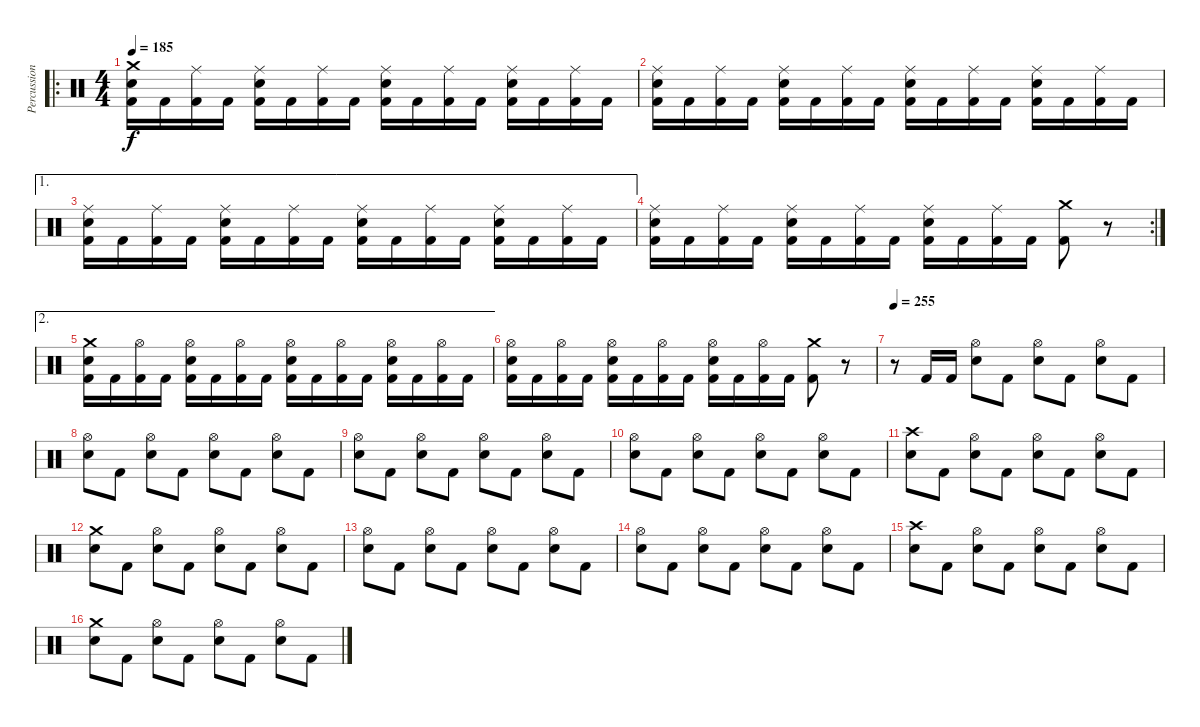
\track ("Percussion" "Percussion") {instrument percussion}
\staff {score}
\articulation defaults
\ro
\ts (4 4)
\tempo 185
\clef neutral
\ks c
("Crash medium (hit)" "Electric Snare (hit)" "Kick (hit) 2").16{dy f volume 13} "Kick (hit) 2".16 ("Ride (middle)" "Kick (hit) 2").16 "Kick (hit) 2".16 ("Ride (middle)" "Electric Snare (hit)" "Kick (hit) 2").16 "Kick (hit) 2".16 ("Ride (middle)" "Kick (hit) 2").16 "Kick (hit) 2".16 ("Ride (middle)" "Electric Snare (hit)" "Kick (hit) 2").16 "Kick (hit) 2".16 ("Ride (middle)" "Kick (hit) 2").16 "Kick (hit) 2".16 ("Ride (middle)" "Electric Snare (hit)" "Kick (hit) 2").16 "Kick (hit) 2".16 ("Ride (middle)" "Kick (hit) 2").16 "Kick (hit) 2".16 |
("Ride (middle)" "Electric Snare (hit)" "Kick (hit) 2").16 "Kick (hit) 2".16 ("Ride (middle)" "Kick (hit) 2").16 "Kick (hit) 2".16 ("Ride (middle)" "Electric Snare (hit)" "Kick (hit) 2").16 "Kick (hit) 2".16 ("Ride (middle)" "Kick (hit) 2").16 "Kick (hit) 2".16 ("Ride (middle)" "Electric Snare (hit)" "Kick (hit) 2").16 "Kick (hit) 2".16 ("Ride (middle)" "Kick (hit) 2").16 "Kick (hit) 2".16 ("Ride (middle)" "Electric Snare (hit)" "Kick (hit) 2").16 "Kick (hit) 2".16 ("Ride (middle)" "Kick (hit) 2").16 "Kick (hit) 2".16 |
\ae 1
("Ride (middle)" "Electric Snare (hit)" "Kick (hit) 2").16 "Kick (hit) 2".16 ("Ride (middle)" "Kick (hit) 2").16 "Kick (hit) 2".16 ("Ride (middle)" "Electric Snare (hit)" "Kick (hit) 2").16 "Kick (hit) 2".16 ("Ride (middle)" "Kick (hit) 2").16 "Kick (hit) 2".16 ("Ride (middle)" "Electric Snare (hit)" "Kick (hit) 2").16 "Kick (hit) 2".16 ("Ride (middle)" "Kick (hit) 2").16 "Kick (hit) 2".16 ("Ride (middle)" "Electric Snare (hit)" "Kick (hit) 2").16 "Kick (hit) 2".16 ("Ride (middle)" "Kick (hit) 2").16 "Kick (hit) 2".16 |
\rc 2
("Ride (middle)" "Electric Snare (hit)" "Kick (hit) 2").16 "Kick (hit) 2".16 ("Ride (middle)" "Kick (hit) 2").16 "Kick (hit) 2".16 ("Ride (middle)" "Electric Snare (hit)" "Kick (hit) 2").16 "Kick (hit) 2".16 ("Ride (middle)" "Kick (hit) 2").16 "Kick (hit) 2".16 ("Ride (middle)" "Electric Snare (hit)" "Kick (hit) 2").16 "Kick (hit) 2".16 ("Ride (middle)" "Kick (hit) 2").16 "Kick (hit) 2".16 ("Crash medium (hit)" "Kick (hit) 2").8 r.8{volume 0} |
\ae 2
("Crash medium (hit)" "Electric Snare (hit)" "Kick (hit) 2").16 "Kick (hit) 2".16 ("Hi-Hat (open)" "Kick (hit) 2").16 "Kick (hit) 2".16 ("Hi-Hat (open)" "Electric Snare (hit)" "Kick (hit) 2").16 "Kick (hit) 2".16 ("Hi-Hat (open)" "Kick (hit) 2").16 "Kick (hit) 2".16 ("Hi-Hat (open)" "Electric Snare (hit)" "Kick (hit) 2").16 "Kick (hit) 2".16 ("Hi-Hat (open)" "Kick (hit) 2").16 "Kick (hit) 2".16 ("Hi-Hat (open)" "Electric Snare (hit)" "Kick (hit) 2").16 "Kick (hit) 2".16 ("Hi-Hat (open)" "Kick (hit) 2").16 "Kick (hit) 2".16 |
("Hi-Hat (open)" "Electric Snare (hit)" "Kick (hit) 2").16 "Kick (hit) 2".16 ("Hi-Hat (open)" "Kick (hit) 2").16 "Kick (hit) 2".16 ("Hi-Hat (open)" "Electric Snare (hit)" "Kick (hit) 2").16 "Kick (hit) 2".16 ("Hi-Hat (open)" "Kick (hit) 2").16 "Kick (hit) 2".16 ("Hi-Hat (open)" "Electric Snare (hit)" "Kick (hit) 2").16 "Kick (hit) 2".16 ("Hi-Hat (open)" "Kick (hit) 2").16 "Kick (hit) 2".16 ("Crash medium (hit)" "Kick (hit) 2").8 r.8{volume 0} |
\tempo 255
r.8 "Kick (hit) 2".16{volume 13} "Kick (hit) 2".16 ("Hi-Hat (open)" "Electric Snare (hit)").8 "Kick (hit) 2".8 ("Hi-Hat (open)" "Electric Snare (hit)").8 "Kick (hit) 2".8 ("Hi-Hat (open)" "Electric Snare (hit)").8 "Kick (hit) 2".8 |
("Hi-Hat (open)" "Electric Snare (hit)").8 "Kick (hit) 2".8 ("Hi-Hat (open)" "Electric Snare (hit)").8 "Kick (hit) 2".8 ("Hi-Hat (open)" "Electric Snare (hit)").8 "Kick (hit) 2".8 ("Hi-Hat (open)" "Electric Snare (hit)").8 "Kick (hit) 2".8 |
("Hi-Hat (open)" "Electric Snare (hit)").8 "Kick (hit) 2".8 ("Hi-Hat (open)" "Electric Snare (hit)").8 "Kick (hit) 2".8 ("Hi-Hat (open)" "Electric Snare (hit)").8 "Kick (hit) 2".8 ("Hi-Hat (open)" "Electric Snare (hit)").8 "Kick (hit) 2".8 |
("Hi-Hat (open)" "Electric Snare (hit)").8 "Kick (hit) 2".8 ("Hi-Hat (open)" "Electric Snare (hit)").8 "Kick (hit) 2".8 ("Hi-Hat (open)" "Electric Snare (hit)").8 "Kick (hit) 2".8 ("Hi-Hat (open)" "Electric Snare (hit)").8 "Kick (hit) 2".8 |
("Crash high (hit)" "Electric Snare (hit)").8 "Kick (hit) 2".8 ("Hi-Hat (open)" "Electric Snare (hit)").8 "Kick (hit) 2".8 ("Hi-Hat (open)" "Electric Snare (hit)").8 "Kick (hit) 2".8 ("Hi-Hat (open)" "Electric Snare (hit)").8 "Kick (hit) 2".8 |
("Crash medium (hit)" "Electric Snare (hit)").8 "Kick (hit) 2".8 ("Hi-Hat (open)" "Electric Snare (hit)").8 "Kick (hit) 2".8 ("Hi-Hat (open)" "Electric Snare (hit)").8 "Kick (hit) 2".8 ("Hi-Hat (open)" "Electric Snare (hit)").8 "Kick (hit) 2".8 |
("Hi-Hat (open)" "Electric Snare (hit)").8 "Kick (hit) 2".8 ("Hi-Hat (open)" "Electric Snare (hit)").8 "Kick (hit) 2".8 ("Hi-Hat (open)" "Electric Snare (hit)").8 "Kick (hit) 2".8 ("Hi-Hat (open)" "Electric Snare (hit)").8 "Kick (hit) 2".8 |
("Hi-Hat (open)" "Electric Snare (hit)").8 "Kick (hit) 2".8 ("Hi-Hat (open)" "Electric Snare (hit)").8 "Kick (hit) 2".8 ("Hi-Hat (open)" "Electric Snare (hit)").8 "Kick (hit) 2".8 ("Hi-Hat (open)" "Electric Snare (hit)").8 "Kick (hit) 2".8 |
("Crash high (hit)" "Electric Snare (hit)").8 "Kick (hit) 2".8 ("Hi-Hat (open)" "Electric Snare (hit)").8 "Kick (hit) 2".8 ("Hi-Hat (open)" "Electric Snare (hit)").8 "Kick (hit) 2".8 ("Hi-Hat (open)" "Electric Snare (hit)").8 "Kick (hit) 2".8 |
("Crash medium (hit)" "Electric Snare (hit)").8 "Kick (hit) 2".8 ("Hi-Hat (open)" "Electric Snare (hit)").8 "Kick (hit) 2".8 ("Hi-Hat (open)" "Electric Snare (hit)").8 "Kick (hit) 2".8 ("Hi-Hat (open)" "Electric Snare (hit)").8 "Kick (hit) 2".8
